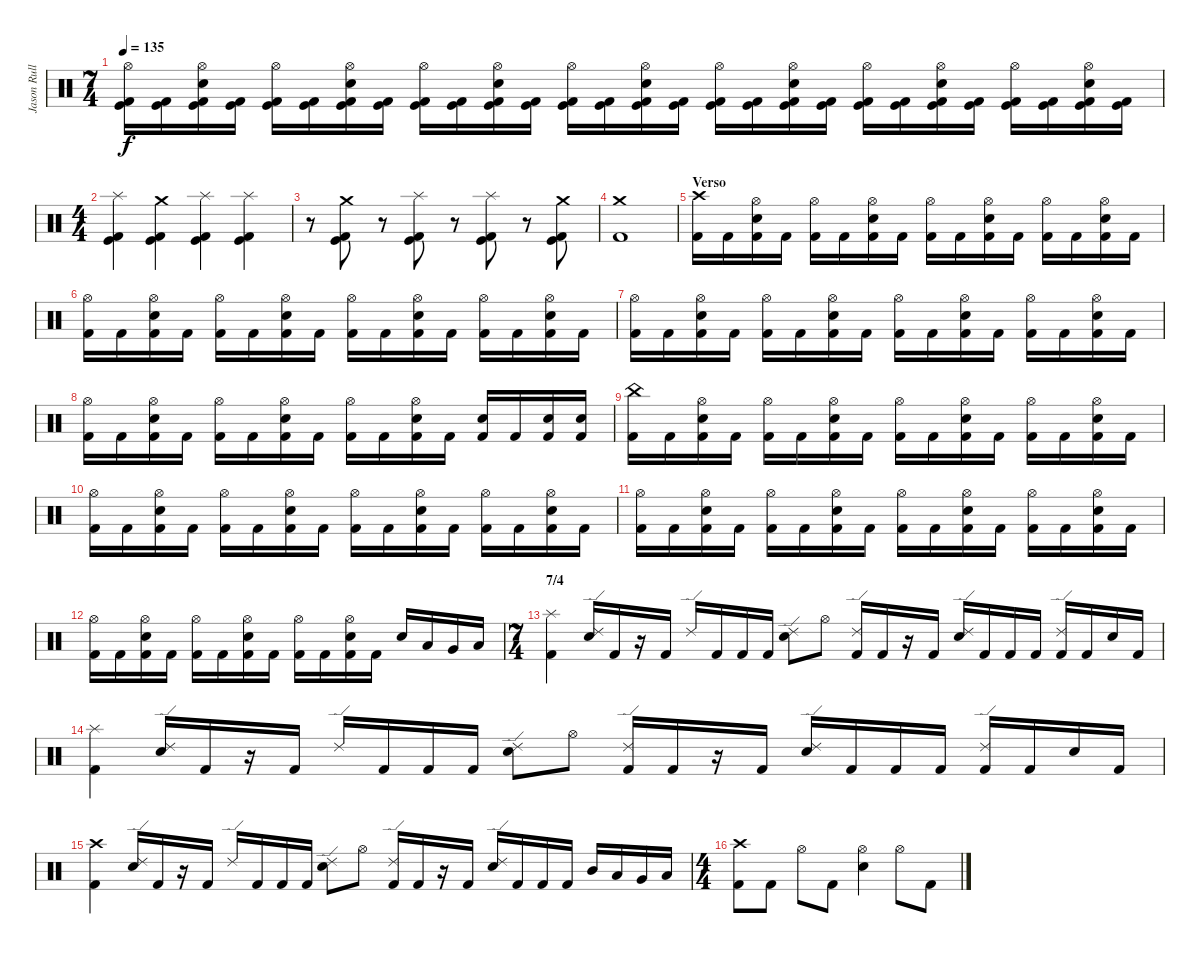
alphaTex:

\track ("Jason Rullo" "Jason Rull") {instrument percussion}
\staff {score}
\articulation defaults
\ts (7 4)
\tempo 135
\clef neutral
\ks c
("Hi-Hat (open)" "Kick (hit) 2" "Kick (hit)").16{dy f} ("Kick (hit) 2" "Kick (hit)").16 ("Hi-Hat (open)" "Electric Snare (hit)" "Kick (hit) 2" "Kick (hit)").16 ("Kick (hit) 2" "Kick (hit)").16 ("Hi-Hat (open)" "Kick (hit) 2" "Kick (hit)").16 ("Kick (hit) 2" "Kick (hit)").16 ("Hi-Hat (open)" "Electric Snare (hit)" "Kick (hit) 2" "Kick (hit)").16 ("Kick (hit) 2" "Kick (hit)").16 ("Hi-Hat (open)" "Kick (hit) 2" "Kick (hit)").16 ("Kick (hit) 2" "Kick (hit)").16 ("Hi-Hat (open)" "Electric Snare (hit)" "Kick (hit) 2" "Kick (hit)").16 ("Kick (hit) 2" "Kick (hit)").16 ("Hi-Hat (open)" "Kick (hit) 2" "Kick (hit)").16 ("Kick (hit) 2" "Kick (hit)").16 ("Hi-Hat (open)" "Electric Snare (hit)" "Kick (hit) 2" "Kick (hit)").16 ("Kick (hit) 2" "Kick (hit)").16 ("Hi-Hat (open)" "Kick (hit) 2" "Kick (hit)").16 ("Kick (hit) 2" "Kick (hit)").16 ("Hi-Hat (open)" "Electric Snare (hit)" "Kick (hit) 2" "Kick (hit)").16 ("Kick (hit) 2" "Kick (hit)").16 ("Hi-Hat (open)" "Kick (hit) 2" "Kick (hit)").16 ("Kick (hit) 2" "Kick (hit)").16 ("Hi-Hat (open)" "Electric Snare (hit)" "Kick (hit) 2" "Kick (hit)").16 ("Kick (hit) 2" "Kick (hit)").16 ("Hi-Hat (open)" "Kick (hit) 2" "Kick (hit)").16 ("Kick (hit) 2" "Kick (hit)").16 ("Hi-Hat (open)" "Electric Snare (hit)" "Kick (hit) 2" "Kick (hit)").16 ("Kick (hit) 2" "Kick (hit)").16 |
\ts (4 4)
("Splash (hit)" "Kick (hit) 2" "Kick (hit)").4 ("Crash medium (hit)" "Kick (hit) 2" "Kick (hit)").4 ("Splash (hit)" "Kick (hit) 2" "Kick (hit)").4 ("Splash (hit)" "Kick (hit) 2" "Kick (hit)").4 |
r.8 ("Crash medium (hit)" "Kick (hit) 2" "Kick (hit)").8 r.8 ("Splash (hit)" "Kick (hit) 2" "Kick (hit)").8 r.8 ("Splash (hit)" "Kick (hit) 2" "Kick (hit)").8 r.8 ("Crash medium (hit)" "Kick (hit) 2" "Kick (hit)").8 |
("Crash medium (hit)" "Kick (hit) 2").1 |
\section ("" "Verso")
("Kick (hit) 2" "Crash high (hit)").16 "Kick (hit) 2".16 ("Hi-Hat (open)" "Electric Snare (hit)" "Kick (hit) 2").16 "Kick (hit) 2".16 ("Hi-Hat (open)" "Kick (hit) 2").16 "Kick (hit) 2".16 ("Hi-Hat (open)" "Electric Snare (hit)" "Kick (hit) 2").16 "Kick (hit) 2".16 ("Hi-Hat (open)" "Kick (hit) 2").16 "Kick (hit) 2".16 ("Hi-Hat (open)" "Electric Snare (hit)" "Kick (hit) 2").16 "Kick (hit) 2".16 ("Hi-Hat (open)" "Kick (hit) 2").16 "Kick (hit) 2".16 ("Hi-Hat (open)" "Electric Snare (hit)" "Kick (hit) 2").16 "Kick (hit) 2".16 |
("Kick (hit) 2" "Hi-Hat (open)").16 "Kick (hit) 2".16 ("Kick (hit) 2" "Electric Snare (hit)" "Hi-Hat (open)").16 "Kick (hit) 2".16 ("Kick (hit) 2" "Hi-Hat (open)").16 "Kick (hit) 2".16 ("Kick (hit) 2" "Electric Snare (hit)" "Hi-Hat (open)").16 "Kick (hit) 2".16 ("Kick (hit) 2" "Hi-Hat (open)").16 "Kick (hit) 2".16 ("Kick (hit) 2" "Electric Snare (hit)" "Hi-Hat (open)").16 "Kick (hit) 2".16 ("Kick (hit) 2" "Hi-Hat (open)").16 "Kick (hit) 2".16 ("Kick (hit) 2" "Electric Snare (hit)" "Hi-Hat (open)").16 "Kick (hit) 2".16 |
("Kick (hit) 2" "Hi-Hat (open)").16 "Kick (hit) 2".16 ("Kick (hit) 2" "Electric Snare (hit)" "Hi-Hat (open)").16 "Kick (hit) 2".16 ("Kick (hit) 2" "Hi-Hat (open)").16 "Kick (hit) 2".16 ("Kick (hit) 2" "Electric Snare (hit)" "Hi-Hat (open)").16 "Kick (hit) 2".16 ("Kick (hit) 2" "Hi-Hat (open)").16 "Kick (hit) 2".16 ("Kick (hit) 2" "Electric Snare (hit)" "Hi-Hat (open)").16 "Kick (hit) 2".16 ("Kick (hit) 2" "Hi-Hat (open)").16 "Kick (hit) 2".16 ("Kick (hit) 2" "Electric Snare (hit)" "Hi-Hat (open)").16 "Kick (hit) 2".16 |
("Kick (hit) 2" "Hi-Hat (open)").16 "Kick (hit) 2".16 ("Kick (hit) 2" "Electric Snare (hit)" "Hi-Hat (open)").16 "Kick (hit) 2".16 ("Kick (hit) 2" "Hi-Hat (open)").16 "Kick (hit) 2".16 ("Kick (hit) 2" "Electric Snare (hit)" "Hi-Hat (open)").16 "Kick (hit) 2".16 ("Kick (hit) 2" "Hi-Hat (open)").16 "Kick (hit) 2".16 ("Kick (hit) 2" "Electric Snare (hit)" "Hi-Hat (open)").16 "Kick (hit) 2".16 ("Kick (hit) 2" "Electric Snare (hit)").16 "Kick (hit) 2".16 ("Kick (hit) 2" "Electric Snare (hit)").16 ("Kick (hit) 2" "Electric Snare (hit)").16 |
("China (hit)" "Kick (hit) 2").16 "Kick (hit) 2".16 ("Kick (hit) 2" "Electric Snare (hit)" "Hi-Hat (open)").16 "Kick (hit) 2".16 ("Kick (hit) 2" "Hi-Hat (open)").16 "Kick (hit) 2".16 ("Kick (hit) 2" "Electric Snare (hit)" "Hi-Hat (open)").16 "Kick (hit) 2".16 ("Kick (hit) 2" "Hi-Hat (open)").16 "Kick (hit) 2".16 ("Kick (hit) 2" "Electric Snare (hit)" "Hi-Hat (open)").16 "Kick (hit) 2".16 ("Kick (hit) 2" "Hi-Hat (open)").16 "Kick (hit) 2".16 ("Kick (hit) 2" "Electric Snare (hit)" "Hi-Hat (open)").16 "Kick (hit) 2".16 |
("Kick (hit) 2" "Hi-Hat (open)").16 "Kick (hit) 2".16 ("Kick (hit) 2" "Electric Snare (hit)" "Hi-Hat (open)").16 "Kick (hit) 2".16 ("Kick (hit) 2" "Hi-Hat (open)").16 "Kick (hit) 2".16 ("Kick (hit) 2" "Electric Snare (hit)" "Hi-Hat (open)").16 "Kick (hit) 2".16 ("Kick (hit) 2" "Hi-Hat (open)").16 "Kick (hit) 2".16 ("Kick (hit) 2" "Electric Snare (hit)" "Hi-Hat (open)").16 "Kick (hit) 2".16 ("Kick (hit) 2" "Hi-Hat (open)").16 "Kick (hit) 2".16 ("Kick (hit) 2" "Electric Snare (hit)" "Hi-Hat (open)").16 "Kick (hit) 2".16 |
("Kick (hit) 2" "Hi-Hat (open)").16 "Kick (hit) 2".16 ("Kick (hit) 2" "Electric Snare (hit)" "Hi-Hat (open)").16 "Kick (hit) 2".16 ("Kick (hit) 2" "Hi-Hat (open)").16 "Kick (hit) 2".16 ("Kick (hit) 2" "Electric Snare (hit)" "Hi-Hat (open)").16 "Kick (hit) 2".16 ("Kick (hit) 2" "Hi-Hat (open)").16 "Kick (hit) 2".16 ("Kick (hit) 2" "Electric Snare (hit)" "Hi-Hat (open)").16 "Kick (hit) 2".16 ("Kick (hit) 2" "Hi-Hat (open)").16 "Kick (hit) 2".16 ("Kick (hit) 2" "Electric Snare (hit)" "Hi-Hat (open)").16 "Kick (hit) 2".16 |
("Kick (hit) 2" "Hi-Hat (open)").16 "Kick (hit) 2".16 ("Kick (hit) 2" "Electric Snare (hit)" "Hi-Hat (open)").16 "Kick (hit) 2".16 ("Kick (hit) 2" "Hi-Hat (open)").16 "Kick (hit) 2".16 ("Kick (hit) 2" "Electric Snare (hit)" "Hi-Hat (open)").16 "Kick (hit) 2".16 ("Kick (hit) 2" "Hi-Hat (open)").16 "Kick (hit) 2".16 ("Kick (hit) 2" "Electric Snare (hit)" "Hi-Hat (open)").16 "Kick (hit) 2".16 "Electric Snare (hit)".16 "Low Tom (hit)".16 "Very Low Tom (hit)".16 "Low Floor Tom (hit)".16 |
\ts (7 4)
\section ("" "7/4")
("Splash (hit)" "Kick (hit) 2").4 ("Electric Snare (hit)" "Ride (edge) 2").16 "Kick (hit) 2".16 r.16 "Kick (hit) 2".16 "Ride (edge) 2".16 "Kick (hit) 2".16 "Kick (hit) 2".16 "Kick (hit) 2".16 ("Electric Snare (hit)" "Ride (edge) 2").8 "Hi-Hat (open)".8 ("Kick (hit) 2" "Ride (edge) 2").16 "Kick (hit) 2".16 r.16 "Kick (hit) 2".16 ("Electric Snare (hit)" "Ride (edge) 2").16 "Kick (hit) 2".16 "Kick (hit) 2".16 "Kick (hit) 2".16 ("Kick (hit) 2" "Ride (edge) 2").16 "Kick (hit) 2".16 "Electric Snare (hit)".16 "Kick (hit) 2".16 |
("Splash (hit)" "Kick (hit) 2").4 ("Electric Snare (hit)" "Ride (edge) 2").16 "Kick (hit) 2".16 r.16 "Kick (hit) 2".16 "Ride (edge) 2".16 "Kick (hit) 2".16 "Kick (hit) 2".16 "Kick (hit) 2".16 ("Electric Snare (hit)" "Ride (edge) 2").8 "Hi-Hat (open)".8 ("Kick (hit) 2" "Ride (edge) 2").16 "Kick (hit) 2".16 r.16 "Kick (hit) 2".16 ("Electric Snare (hit)" "Ride (edge) 2").16 "Kick (hit) 2".16 "Kick (hit) 2".16 "Kick (hit) 2".16 ("Kick (hit) 2" "Ride (edge) 2").16 "Kick (hit) 2".16 "Electric Snare (hit)".16 "Kick (hit) 2".16 |
("Crash high (hit)" "Kick (hit) 2").4 ("Electric Snare (hit)" "Ride (edge) 2").16 "Kick (hit) 2".16 r.16 "Kick (hit) 2".16 "Ride (edge) 2".16 "Kick (hit) 2".16 "Kick (hit) 2".16 "Kick (hit) 2".16 ("Electric Snare (hit)" "Ride (edge) 2").8 "Hi-Hat (open)".8 ("Kick (hit) 2" "Ride (edge) 2").16 "Kick (hit) 2".16 r.16 "Kick (hit) 2".16 ("Electric Snare (hit)" "Ride (edge) 2").16 "Kick (hit) 2".16 "Kick (hit) 2".16 "Kick (hit) 2".16 "Mid Tom (hit)".16 "Low Tom (hit)".16 "Very Low Tom (hit)".16 "Low Floor Tom (hit)".16 |
\ts (4 4)
("Kick (hit) 2" "Crash high (hit)").8 "Kick (hit) 2".8 "Hi-Hat (open)".8 "Kick (hit) 2".8 ("Electric Snare (hit)" "Hi-Hat (open)").4 "Hi-Hat (open)".8 "Kick (hit) 2".8
